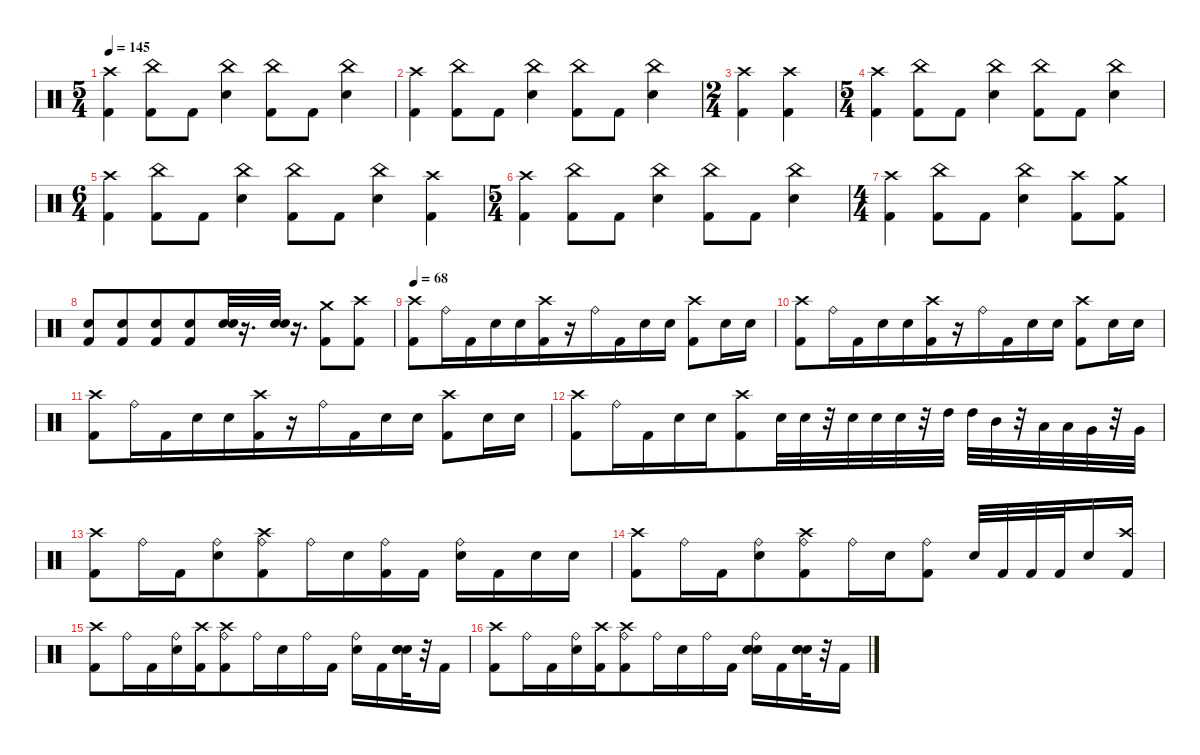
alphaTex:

\defaultSystemsLayout 4
\hideDynamics
\bracketExtendMode nobrackets
\singleTrackTrackNamePolicy hidden
\multiTrackTrackNamePolicy hidden
\firstSystemTrackNameMode fullname
\otherSystemsTrackNameOrientation horizontal
\track ("Drums" "drm.") {instrument percussion}
\staff {score}
\articulation defaults
\ts (5 4)
\beaming (8 6 4)
\tempo 145
\clef neutral
\ks c
("Crash high (hit)" "Kick (hit) 2").4{dy f beam Down} ("China (hit)" "Kick (hit) 2").8{dy mp beam Down} "Kick (hit) 2".8{dy f beam Down} ("China (hit)" "Snare (hit) 2").4{dy mp beam Down} ("China (hit)" "Kick (hit) 2").8{beam Down} "Kick (hit) 2".8{dy f beam Down} ("China (hit)" "Snare (hit) 2").4{dy mp beam Down} |
("Kick (hit) 2" "Crash high (hit)").4{dy f beam Down} ("Kick (hit) 2" "China (hit)").8{beam Down} "Kick (hit) 2".8{beam Down} ("Snare (hit) 2" "China (hit)").4{beam Down} ("Kick (hit) 2" "China (hit)").8{beam Down} "Kick (hit) 2".8{beam Down} ("Snare (hit) 2" "China (hit)").4{beam Down} |
\ts (2 4)
\beaming (8 6 4)
("Kick (hit) 2" "Crash high (hit)").4{beam Down} ("Crash high (hit)" "Kick (hit) 2").4{beam Down} |
\ts (5 4)
\beaming (8 6 4)
("Kick (hit) 2" "Crash high (hit)").4{beam Down} ("China (hit)" "Kick (hit) 2").8{dy mp beam Down} "Kick (hit) 2".8{dy f beam Down} ("China (hit)" "Snare (hit) 2").4{dy mp beam Down} ("China (hit)" "Kick (hit) 2").8{beam Down} "Kick (hit) 2".8{dy f beam Down} ("China (hit)" "Snare (hit) 2").4{dy mp beam Down} |
\ts (6 4)
\beaming (8 6 4 2)
("Kick (hit) 2" "Crash high (hit)").4{dy f beam Down} ("China (hit)" "Kick (hit) 2").8{dy mp beam Down} "Kick (hit) 2".8{dy f beam Down} ("China (hit)" "Snare (hit) 2").4{dy mp beam Down} ("China (hit)" "Kick (hit) 2").8{beam Down} "Kick (hit) 2".8{dy f beam Down} ("China (hit)" "Snare (hit) 2").4{dy mp beam Down} ("Crash high (hit)" "Kick (hit) 2").4{dy f beam Down} |
\ts (5 4)
\beaming (8 6 4)
("Crash high (hit)" "Kick (hit) 2").4{beam Down} ("China (hit)" "Kick (hit) 2").8{dy mp beam Down} "Kick (hit) 2".8{dy f beam Down} ("China (hit)" "Snare (hit) 2").4{dy mp beam Down} ("China (hit)" "Kick (hit) 2").8{beam Down} "Kick (hit) 2".8{dy f beam Down} ("China (hit)" "Snare (hit) 2").4{dy mp beam Down} |
\ts (4 4)
\beaming (8 6 4)
("Crash high (hit)" "Kick (hit) 2").4{dy f beam Down} ("Kick (hit) 2" "China (hit)").8{beam Down} "Kick (hit) 2".8{beam Down} ("Snare (hit) 2" "China (hit)").4{beam Down} ("Kick (hit) 2" "Crash high (hit)").8{beam Down} ("Kick (hit) 2" "Crash medium (hit)").8{beam Down} |
("Snare (hit) 2" "Kick (hit) 2").8{dy mp beam Up} ("Snare (hit) 2" "Kick (hit) 2").8{dy mf beam Up} ("Snare (hit) 2" "Kick (hit) 2").8{dy f beam Up} ("Snare (hit) 2" "Kick (hit) 2").8{beam Up} ("Snare (hit) 2" "Snare (hit) 2").32{beam Up} r.16{d beam Up} ("Snare (hit) 2" "Snare (hit) 2").32{beam Up} r.16{d beam Up} ("Kick (hit) 2" "Crash medium (hit)").8{beam Down} ("Crash high (hit)" "Kick (hit) 2").8{beam Down} |
\tempo 68
("Crash high (hit)" "Kick (hit) 2").8{dy fff beam Down} "Ride (bell)".16{dy f beam Down} "Kick (hit) 2".16{beam Down} "Snare (hit) 2".16{beam Down} "Snare (hit) 2".16{beam Down} ("Kick (hit) 2" "Crash high (hit)").16{beam Down} r.16{beam Down} "Ride (bell)".16{beam Down} "Kick (hit) 2".16{beam Down} "Snare (hit) 2".16{beam Down} "Snare (hit) 2".16{beam Down} ("Crash high (hit)" "Kick (hit) 2").8{beam Down} "Snare (hit) 2".16{beam Down} "Snare (hit) 2".16{beam Down} |
("Kick (hit) 2" "Crash high (hit)").8{beam Down} "Ride (bell)".16{beam Down} "Kick (hit) 2".16{beam Down} "Snare (hit) 2".16{beam Down} "Snare (hit) 2".16{beam Down} ("Kick (hit) 2" "Crash high (hit)").16{beam Down} r.16{beam Down} "Ride (bell)".16{beam Down} "Kick (hit) 2".16{beam Down} "Snare (hit) 2".16{beam Down} "Snare (hit) 2".16{beam Down} ("Crash high (hit)" "Kick (hit) 2").8{beam Down} "Snare (hit) 2".16{beam Down} "Snare (hit) 2".16{beam Down} |
("Crash high (hit)" "Kick (hit) 2").8{beam Down} "Ride (bell)".16{beam Down} "Kick (hit) 2".16{beam Down} "Snare (hit) 2".16{beam Down} "Snare (hit) 2".16{beam Down} ("Kick (hit) 2" "Crash high (hit)").16{beam Down} r.16{beam Down} "Ride (bell)".16{beam Down} "Kick (hit) 2".16{beam Down} "Snare (hit) 2".16{beam Down} "Snare (hit) 2".16{beam Down} ("Crash high (hit)" "Kick (hit) 2").8{beam Down} "Snare (hit) 2".16{beam Down} "Snare (hit) 2".16{beam Down} |
("Kick (hit) 2" "Crash high (hit)").8{beam Down} "Ride (bell)".16{beam Down} "Kick (hit) 2".16{beam Down} "Snare (hit) 2".16{beam Down} "Snare (hit) 2".16{beam Down} ("Crash high (hit)" "Kick (hit) 2").8{beam Down} "Snare (hit) 2".32{beam Down} "Snare (hit) 2".32{beam Down} r.32{beam Down} "Snare (hit) 2".32{beam Down} "Snare (hit) 2".32{beam Down} "Snare (hit) 2".32{beam Down} r.32{beam Down} "High Tom (hit)".32{beam Down} "High Tom (hit)".32{beam Down} "Mid Tom (hit)".32{beam Down} r.32{beam Down} "Low Tom (hit)".32{beam Down} "Low Tom (hit)".32{beam Down} "Very Low Tom (hit)".32{beam Down} r.32{beam Down} "Very Low Tom (hit)".32{beam Down} |
("Crash high (hit)" "Kick (hit) 2").8{beam Down} "Ride (bell)".16{beam Down} "Kick (hit) 2".16{beam Down} ("Ride (bell)" "Snare (hit) 2").8{beam Down} ("Ride (bell)" "Crash high (hit)" "Kick (hit) 2").8{beam Down} "Ride (bell)".16{beam Down} "Snare (hit) 2".16{beam Down} ("Ride (bell)" "Kick (hit) 2").16{beam Down} "Kick (hit) 2".16{beam Down} ("Snare (hit) 2" "Ride (bell)").16{beam Down} "Kick (hit) 2".16{beam Down} "Snare (hit) 2".16{beam Down} "Snare (hit) 2".16{beam Down} |
("Kick (hit) 2" "Crash high (hit)").8{beam Down} "Ride (bell)".16{beam Down} "Kick (hit) 2".16{beam Down} ("Ride (bell)" "Snare (hit) 2").8{beam Down} ("Ride (bell)" "Crash high (hit)" "Kick (hit) 2").8{beam Down} "Ride (bell)".16{beam Down} "Snare (hit) 2".16{beam Down} ("Ride (bell)" "Kick (hit) 2").8{beam Down} "Snare (hit) 2".32{beam Up} "Kick (hit) 2".32{beam Up} "Kick (hit) 2".32{beam Up} "Kick (hit) 2".32{beam Up} "Snare (hit) 2".16{beam Up} ("Crash high (hit)" "Kick (hit) 2").16{beam Up} |
("Kick (hit) 2" "Crash high (hit)").8{beam Down} "Ride (bell)".16{beam Down} "Kick (hit) 2".16{beam Down} ("Ride (bell)" "Snare (hit) 2").16{beam Down} ("Crash high (hit)" "Kick (hit) 2").16{beam Down} ("Ride (bell)" "Crash high (hit)" "Kick (hit) 2").8{beam Down} "Ride (bell)".16{beam Down} "Snare (hit) 2".16{beam Down} "Ride (bell)".16{beam Down} "Kick (hit) 2".16{beam Down} ("Snare (hit) 2" "Ride (bell)").16{beam Down} "Kick (hit) 2".16{beam Down} ("Snare (hit) 2" "Snare (hit) 2" "Snare (hit) 2").32{beam Down} r.32{beam Down} "Kick (hit) 2".16{beam Down} |
("Crash high (hit)" "Kick (hit) 2").8{beam Down} "Ride (bell)".16{beam Down} "Kick (hit) 2".16{beam Down} ("Ride (bell)" "Snare (hit) 2").16{beam Down} ("Crash high (hit)" "Kick (hit) 2").16{beam Down} ("Ride (bell)" "Crash high (hit)" "Kick (hit) 2").8{beam Down} "Ride (bell)".16{beam Down} "Snare (hit) 2".16{beam Down} "Ride (bell)".16{beam Down} "Kick (hit) 2".16{beam Down} ("Ride (bell)" "Snare (hit) 2" "Snare (hit) 2" "Snare (hit) 2").16{beam Down} "Kick (hit) 2".16{beam Down} ("Snare (hit) 2" "Snare (hit) 2" "Snare (hit) 2").32{beam Down} r.32{beam Down} "Kick (hit) 2".16{beam Down}
